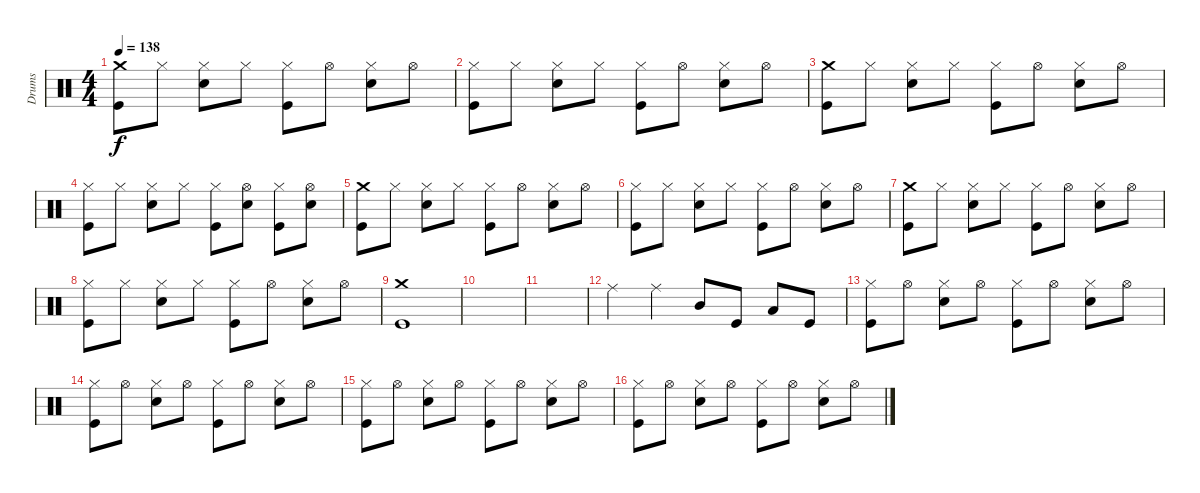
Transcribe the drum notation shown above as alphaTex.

\track ("Drums" "Drums") {instrument percussion}
\staff {score}
\articulation defaults
\ts (4 4)
\tempo 138
\clef neutral
\ks c
("Crash medium (hit)" "Kick (hit)").8{dy f} "Hi-Hat (closed)".8 ("Hi-Hat (closed)" "Electric Snare (hit)").8 "Hi-Hat (closed)".8 ("Hi-Hat (closed)" "Kick (hit)").8 "Hi-Hat (open)".8 ("Hi-Hat (closed)" "Electric Snare (hit)").8 "Hi-Hat (open)".8 |
("Hi-Hat (closed)" "Kick (hit)").8 "Hi-Hat (closed)".8 ("Hi-Hat (closed)" "Electric Snare (hit)").8 "Hi-Hat (closed)".8 ("Hi-Hat (closed)" "Kick (hit)").8 "Hi-Hat (open)".8 ("Hi-Hat (closed)" "Electric Snare (hit)").8 "Hi-Hat (open)".8 |
("Crash medium (hit)" "Kick (hit)").8 "Hi-Hat (closed)".8 ("Hi-Hat (closed)" "Electric Snare (hit)").8 "Hi-Hat (closed)".8 ("Hi-Hat (closed)" "Kick (hit)").8 "Hi-Hat (open)".8 ("Hi-Hat (closed)" "Electric Snare (hit)").8 "Hi-Hat (open)".8 |
("Hi-Hat (closed)" "Kick (hit)").8 "Hi-Hat (closed)".8 ("Hi-Hat (closed)" "Electric Snare (hit)").8 "Hi-Hat (closed)".8 ("Hi-Hat (closed)" "Kick (hit)").8 ("Hi-Hat (open)" "Electric Snare (hit)").8 ("Hi-Hat (closed)" "Kick (hit)").8 ("Hi-Hat (open)" "Electric Snare (hit)").8 |
("Crash medium (hit)" "Kick (hit)").8 "Hi-Hat (closed)".8 ("Hi-Hat (closed)" "Electric Snare (hit)").8 "Hi-Hat (closed)".8 ("Hi-Hat (closed)" "Kick (hit)").8 "Hi-Hat (open)".8 ("Hi-Hat (closed)" "Electric Snare (hit)").8 "Hi-Hat (open)".8 |
("Hi-Hat (closed)" "Kick (hit)").8 "Hi-Hat (closed)".8 ("Hi-Hat (closed)" "Electric Snare (hit)").8 "Hi-Hat (closed)".8 ("Hi-Hat (closed)" "Kick (hit)").8 "Hi-Hat (open)".8 ("Hi-Hat (closed)" "Electric Snare (hit)").8 "Hi-Hat (open)".8 |
("Crash medium (hit)" "Kick (hit)").8 "Hi-Hat (closed)".8 ("Hi-Hat (closed)" "Electric Snare (hit)").8 "Hi-Hat (closed)".8 ("Hi-Hat (closed)" "Kick (hit)").8 "Hi-Hat (open)".8 ("Hi-Hat (closed)" "Electric Snare (hit)").8 "Hi-Hat (open)".8 |
("Hi-Hat (closed)" "Kick (hit)").8 "Hi-Hat (closed)".8 ("Hi-Hat (closed)" "Electric Snare (hit)").8 "Hi-Hat (closed)".8 ("Hi-Hat (closed)" "Kick (hit)").8 "Hi-Hat (open)".8 ("Hi-Hat (closed)" "Electric Snare (hit)").8 "Hi-Hat (open)".8 |
("Crash medium (hit)" "Kick (hit)").1 |
|
|
"Ride (middle)".4 "Ride (middle)".4 "Mid Tom (hit)".8 "Kick (hit)".8 "Low Tom (hit)".8 "Kick (hit)".8 |
("Hi-Hat (closed)" "Kick (hit)").8 "Hi-Hat (open)".8 ("Hi-Hat (closed)" "Electric Snare (hit)").8 "Hi-Hat (open)".8 ("Hi-Hat (closed)" "Kick (hit)").8 "Hi-Hat (open)".8 ("Hi-Hat (closed)" "Electric Snare (hit)").8 "Hi-Hat (open)".8 |
("Hi-Hat (closed)" "Kick (hit)").8 "Hi-Hat (open)".8 ("Hi-Hat (closed)" "Electric Snare (hit)").8 "Hi-Hat (open)".8 ("Hi-Hat (closed)" "Kick (hit)").8 "Hi-Hat (open)".8 ("Hi-Hat (closed)" "Electric Snare (hit)").8 "Hi-Hat (open)".8 |
("Hi-Hat (closed)" "Kick (hit)").8 "Hi-Hat (open)".8 ("Hi-Hat (closed)" "Electric Snare (hit)").8 "Hi-Hat (open)".8 ("Hi-Hat (closed)" "Kick (hit)").8 "Hi-Hat (open)".8 ("Hi-Hat (closed)" "Electric Snare (hit)").8 "Hi-Hat (open)".8 |
("Hi-Hat (closed)" "Kick (hit)").8 "Hi-Hat (open)".8 ("Hi-Hat (closed)" "Electric Snare (hit)").8 "Hi-Hat (open)".8 ("Hi-Hat (closed)" "Kick (hit)").8 "Hi-Hat (open)".8 ("Hi-Hat (closed)" "Electric Snare (hit)").8 "Hi-Hat (open)".8
